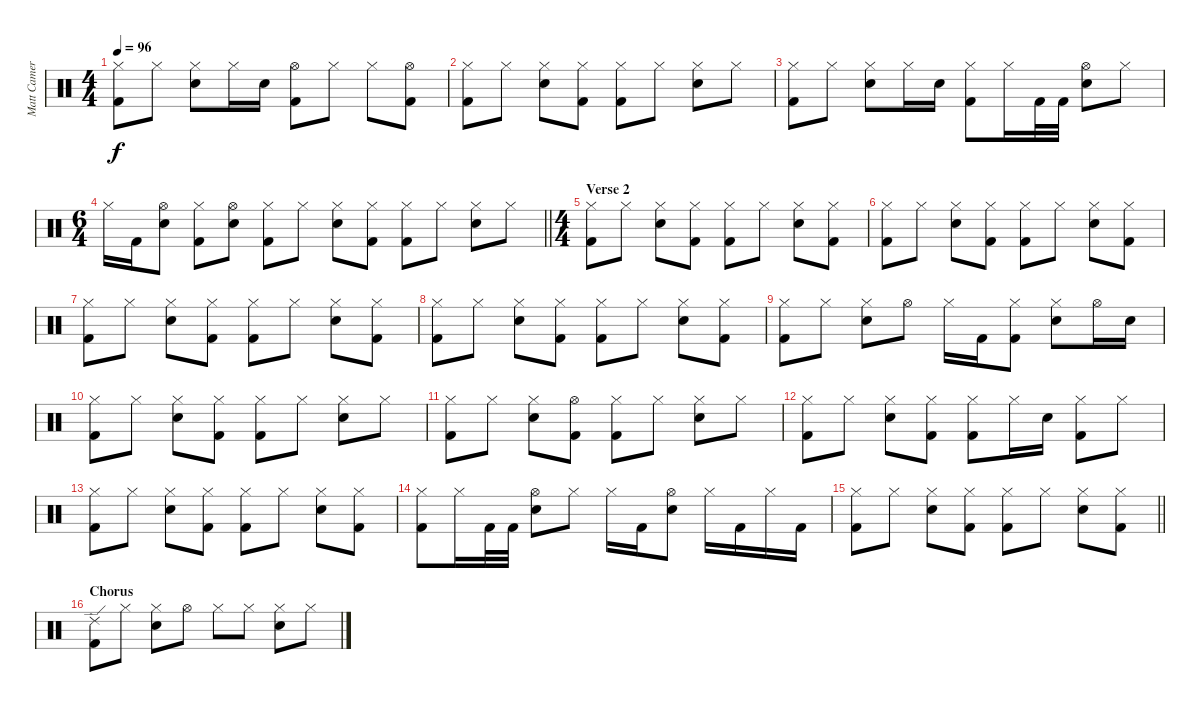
\track ("Matt Cameron" "Matt Camer") {instrument percussion}
\staff {score}
\articulation defaults
\ts (4 4)
\tempo 96
\clef neutral
\ks c
("Hi-Hat (closed)" "Kick (hit) 2").8{dy f} "Hi-Hat (closed)".8 ("Hi-Hat (closed)" "Electric Snare (hit)").8 "Hi-Hat (closed)".16 "Electric Snare (hit)".16 ("Hi-Hat (open)" "Kick (hit) 2").8 "Hi-Hat (closed)".8 "Hi-Hat (closed)".8 ("Hi-Hat (open)" "Kick (hit) 2").8 |
("Hi-Hat (closed)" "Kick (hit) 2").8 "Hi-Hat (closed)".8 ("Hi-Hat (closed)" "Electric Snare (hit)").8 ("Hi-Hat (closed)" "Kick (hit) 2").8 ("Hi-Hat (closed)" "Kick (hit) 2").8 "Hi-Hat (closed)".8 ("Hi-Hat (closed)" "Electric Snare (hit)").8 "Hi-Hat (closed)".8 |
("Hi-Hat (closed)" "Kick (hit) 2").8 "Hi-Hat (closed)".8 ("Hi-Hat (closed)" "Electric Snare (hit)").8 "Hi-Hat (closed)".16 "Electric Snare (hit)".16 ("Hi-Hat (closed)" "Kick (hit) 2").8 "Hi-Hat (closed)".16 "Kick (hit) 2".32 "Kick (hit) 2".32 ("Hi-Hat (open)" "Electric Snare (hit)").8 "Hi-Hat (closed)".8 |
\ts (6 4)
\barLineRight lightlight "Hi-Hat (closed)".16 "Kick (hit) 2".16
("Hi-Hat (open)" "Electric Snare (hit)").8 ("Hi-Hat (closed)" "Kick (hit) 2").8 ("Hi-Hat (open)" "Electric Snare (hit)").8 ("Hi-Hat (closed)" "Kick (hit) 2").8 "Hi-Hat (closed)".8 ("Hi-Hat (closed)" "Electric Snare (hit)").8 ("Hi-Hat (closed)" "Kick (hit) 2").8 ("Hi-Hat (closed)" "Kick (hit) 2").8 "Hi-Hat (closed)".8 ("Hi-Hat (closed)" "Electric Snare (hit)").8 "Hi-Hat (closed)".8 |
\ts (4 4)
\section ("" "Verse 2")
("Hi-Hat (closed)" "Kick (hit) 2").8 "Hi-Hat (closed)".8 ("Hi-Hat (closed)" "Electric Snare (hit)").8 ("Hi-Hat (closed)" "Kick (hit) 2").8 ("Hi-Hat (closed)" "Kick (hit) 2").8 "Hi-Hat (closed)".8 ("Hi-Hat (closed)" "Electric Snare (hit)").8 ("Hi-Hat (closed)" "Kick (hit) 2").8 |
("Hi-Hat (closed)" "Kick (hit) 2").8 "Hi-Hat (closed)".8 ("Hi-Hat (closed)" "Electric Snare (hit)").8 ("Hi-Hat (closed)" "Kick (hit) 2").8 ("Hi-Hat (closed)" "Kick (hit) 2").8 "Hi-Hat (closed)".8 ("Hi-Hat (closed)" "Electric Snare (hit)").8 ("Hi-Hat (closed)" "Kick (hit) 2").8 |
("Hi-Hat (closed)" "Kick (hit) 2").8 "Hi-Hat (closed)".8 ("Hi-Hat (closed)" "Electric Snare (hit)").8 ("Hi-Hat (closed)" "Kick (hit) 2").8 ("Hi-Hat (closed)" "Kick (hit) 2").8 "Hi-Hat (closed)".8 ("Hi-Hat (closed)" "Electric Snare (hit)").8 ("Hi-Hat (closed)" "Kick (hit) 2").8 |
("Hi-Hat (closed)" "Kick (hit) 2").8 "Hi-Hat (closed)".8 ("Hi-Hat (closed)" "Electric Snare (hit)").8 ("Hi-Hat (closed)" "Kick (hit) 2").8 ("Hi-Hat (closed)" "Kick (hit) 2").8 "Hi-Hat (closed)".8 ("Hi-Hat (closed)" "Electric Snare (hit)").8 ("Hi-Hat (closed)" "Kick (hit) 2").8 |
("Hi-Hat (closed)" "Kick (hit) 2").8 "Hi-Hat (closed)".8 ("Hi-Hat (closed)" "Electric Snare (hit)").8 "Hi-Hat (open)".8 "Hi-Hat (closed)".16 "Kick (hit) 2".16 ("Hi-Hat (closed)" "Kick (hit) 2").8 ("Hi-Hat (closed)" "Electric Snare (hit)").8 "Hi-Hat (open)".16 "Electric Snare (hit)".16 |
("Hi-Hat (closed)" "Kick (hit) 2").8 "Hi-Hat (closed)".8 ("Hi-Hat (closed)" "Electric Snare (hit)").8 ("Hi-Hat (closed)" "Kick (hit) 2").8 ("Hi-Hat (closed)" "Kick (hit) 2").8 "Hi-Hat (closed)".8 ("Hi-Hat (closed)" "Electric Snare (hit)").8 "Hi-Hat (closed)".8 |
("Hi-Hat (closed)" "Kick (hit) 2").8 "Hi-Hat (closed)".8 ("Hi-Hat (closed)" "Electric Snare (hit)").8 ("Hi-Hat (open)" "Kick (hit) 2").8 ("Hi-Hat (closed)" "Kick (hit) 2").8 "Hi-Hat (closed)".8 ("Hi-Hat (closed)" "Electric Snare (hit)").8 "Hi-Hat (closed)".8 |
("Hi-Hat (closed)" "Kick (hit) 2").8 "Hi-Hat (closed)".8 ("Hi-Hat (closed)" "Electric Snare (hit)").8 ("Hi-Hat (closed)" "Kick (hit) 2").8 ("Hi-Hat (closed)" "Kick (hit) 2").8 "Hi-Hat (closed)".16 "Electric Snare (hit)".16 ("Hi-Hat (closed)" "Kick (hit) 2").8 "Hi-Hat (closed)".8 |
("Hi-Hat (closed)" "Kick (hit) 2").8 "Hi-Hat (closed)".8 ("Hi-Hat (closed)" "Electric Snare (hit)").8 ("Hi-Hat (closed)" "Kick (hit) 2").8 ("Hi-Hat (closed)" "Kick (hit) 2").8 "Hi-Hat (closed)".8 ("Hi-Hat (closed)" "Electric Snare (hit)").8 ("Hi-Hat (closed)" "Kick (hit) 2").8 |
("Hi-Hat (closed)" "Kick (hit) 2").8 "Hi-Hat (closed)".16 "Kick (hit) 2".32 "Kick (hit) 2".32 ("Hi-Hat (open)" "Electric Snare (hit)").8 "Hi-Hat (closed)".8 "Hi-Hat (closed)".16 "Kick (hit) 2".16 ("Hi-Hat (open)" "Electric Snare (hit)").8 "Hi-Hat (closed)".16 "Kick (hit) 2".16 "Hi-Hat (closed)".16 "Kick (hit) 2".16 |
\barLineRight lightlight
("Hi-Hat (closed)" "Kick (hit) 2").8 "Hi-Hat (closed)".8 ("Hi-Hat (closed)" "Electric Snare (hit)").8 ("Hi-Hat (closed)" "Kick (hit) 2").8 ("Hi-Hat (closed)" "Kick (hit) 2").8 "Hi-Hat (closed)".8 ("Hi-Hat (closed)" "Electric Snare (hit)").8 ("Hi-Hat (closed)" "Kick (hit) 2").8 |
\section ("" "Chorus")
("Ride (edge) 2" "Kick (hit) 2").8 "Hi-Hat (closed)".8 ("Hi-Hat (closed)" "Electric Snare (hit)").8 "Hi-Hat (open)".8 "Hi-Hat (closed)".8 "Hi-Hat (closed)".8 ("Hi-Hat (closed)" "Electric Snare (hit)").8 "Hi-Hat (closed)".8
